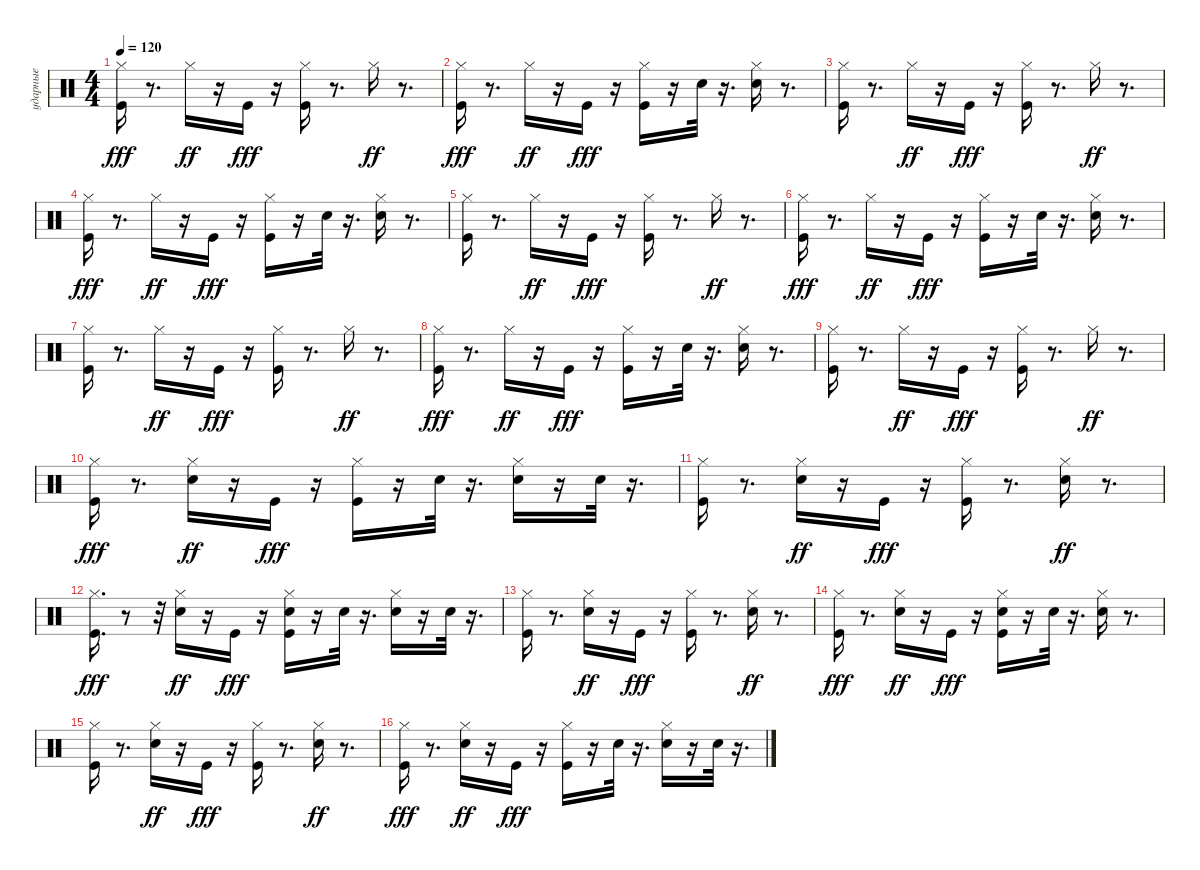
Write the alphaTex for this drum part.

\track ("ударные" "ударные") {instrument percussion}
\staff {score}
\articulation defaults
\ts (4 4)
\tempo 120
\clef neutral
\ks c
("Hi-Hat (closed)" "Kick (hit)").16{dy fff} r.8{d} "Hi-Hat (closed)".16{dy ff} r.16 "Kick (hit)".16{dy fff} r.16 ("Kick (hit)" "Hi-Hat (closed)").16 r.8{d} "Hi-Hat (closed)".16{dy ff} r.8{d} |
("Hi-Hat (closed)" "Kick (hit)").16{dy fff} r.8{d} "Hi-Hat (closed)".16{dy ff} r.16 "Kick (hit)".16{dy fff} r.16 ("Kick (hit)" "Hi-Hat (closed)").16 r.16 "Electric Snare (hit)".32 r.16{d} ("Electric Snare (hit)" "Hi-Hat (closed)").16 r.8{d} |
("Hi-Hat (closed)" "Kick (hit)").16 r.8{d} "Hi-Hat (closed)".16{dy ff} r.16 "Kick (hit)".16{dy fff} r.16 ("Kick (hit)" "Hi-Hat (closed)").16 r.8{d} "Hi-Hat (closed)".16{dy ff} r.8{d} |
("Hi-Hat (closed)" "Kick (hit)").16{dy fff} r.8{d} "Hi-Hat (closed)".16{dy ff} r.16 "Kick (hit)".16{dy fff} r.16 ("Kick (hit)" "Hi-Hat (closed)").16 r.16 "Electric Snare (hit)".32 r.16{d} ("Electric Snare (hit)" "Hi-Hat (closed)").16 r.8{d} |
("Hi-Hat (closed)" "Kick (hit)").16 r.8{d} "Hi-Hat (closed)".16{dy ff} r.16 "Kick (hit)".16{dy fff} r.16 ("Kick (hit)" "Hi-Hat (closed)").16 r.8{d} "Hi-Hat (closed)".16{dy ff} r.8{d} |
("Hi-Hat (closed)" "Kick (hit)").16{dy fff} r.8{d} "Hi-Hat (closed)".16{dy ff} r.16 "Kick (hit)".16{dy fff} r.16 ("Kick (hit)" "Hi-Hat (closed)").16 r.16 "Electric Snare (hit)".32 r.16{d} ("Electric Snare (hit)" "Hi-Hat (closed)").16 r.8{d} |
("Hi-Hat (closed)" "Kick (hit)").16 r.8{d} "Hi-Hat (closed)".16{dy ff} r.16 "Kick (hit)".16{dy fff} r.16 ("Kick (hit)" "Hi-Hat (closed)").16 r.8{d} "Hi-Hat (closed)".16{dy ff} r.8{d} |
("Hi-Hat (closed)" "Kick (hit)").16{dy fff} r.8{d} "Hi-Hat (closed)".16{dy ff} r.16 "Kick (hit)".16{dy fff} r.16 ("Kick (hit)" "Hi-Hat (closed)").16 r.16 "Electric Snare (hit)".32 r.16{d} ("Electric Snare (hit)" "Hi-Hat (closed)").16 r.8{d} |
("Hi-Hat (closed)" "Kick (hit)").16 r.8{d} "Hi-Hat (closed)".16{dy ff} r.16 "Kick (hit)".16{dy fff} r.16 ("Kick (hit)" "Hi-Hat (closed)").16 r.8{d} "Hi-Hat (closed)".16{dy ff} r.8{d} |
("Hi-Hat (closed)" "Kick (hit)").16{dy fff} r.8{d} ("Electric Snare (hit)" "Hi-Hat (closed)").16{dy ff} r.16 "Kick (hit)".16{dy fff} r.16 ("Kick (hit)" "Hi-Hat (closed)").16 r.16 "Electric Snare (hit)".32 r.16{d} ("Electric Snare (hit)" "Hi-Hat (closed)").16 r.16 "Electric Snare (hit)".32 r.16{d} |
("Hi-Hat (closed)" "Kick (hit)").16 r.8{d} ("Electric Snare (hit)" "Hi-Hat (closed)").16{dy ff} r.16 "Kick (hit)".16{dy fff} r.16 ("Kick (hit)" "Hi-Hat (closed)").16 r.8{d} ("Electric Snare (hit)" "Hi-Hat (closed)").16{dy ff} r.8{d} |
("Kick (hit)" "Hi-Hat (closed)").16{d dy fff} r.8 r.32 ("Electric Snare (hit)" "Hi-Hat (closed)").16{dy ff} r.16 "Kick (hit)".16{dy fff} r.16 ("Electric Snare (hit)" "Kick (hit)" "Hi-Hat (closed)").16 r.16 "Electric Snare (hit)".32 r.16{d} ("Electric Snare (hit)" "Hi-Hat (closed)").16 r.16 "Electric Snare (hit)".32 r.16{d} |
("Hi-Hat (closed)" "Kick (hit)").16 r.8{d} ("Electric Snare (hit)" "Hi-Hat (closed)").16{dy ff} r.16 "Kick (hit)".16{dy fff} r.16 ("Kick (hit)" "Hi-Hat (closed)").16 r.8{d} ("Electric Snare (hit)" "Hi-Hat (closed)").16{dy ff} r.8{d} |
("Hi-Hat (closed)" "Kick (hit)").16{dy fff} r.8{d} ("Electric Snare (hit)" "Hi-Hat (closed)").16{dy ff} r.16 "Kick (hit)".16{dy fff} r.16 ("Electric Snare (hit)" "Kick (hit)" "Hi-Hat (closed)").16 r.16 "Electric Snare (hit)".32 r.16{d} ("Electric Snare (hit)" "Hi-Hat (closed)").16 r.8{d} |
("Hi-Hat (closed)" "Kick (hit)").16 r.8{d} ("Electric Snare (hit)" "Hi-Hat (closed)").16{dy ff} r.16 "Kick (hit)".16{dy fff} r.16 ("Kick (hit)" "Hi-Hat (closed)").16 r.8{d} ("Electric Snare (hit)" "Hi-Hat (closed)").16{dy ff} r.8{d} |
("Hi-Hat (closed)" "Kick (hit)").16{dy fff} r.8{d} ("Electric Snare (hit)" "Hi-Hat (closed)").16{dy ff} r.16 "Kick (hit)".16{dy fff} r.16 ("Kick (hit)" "Hi-Hat (closed)").16 r.16 "Electric Snare (hit)".32 r.16{d} ("Electric Snare (hit)" "Hi-Hat (closed)").16 r.16 "Electric Snare (hit)".32 r.16{d}
